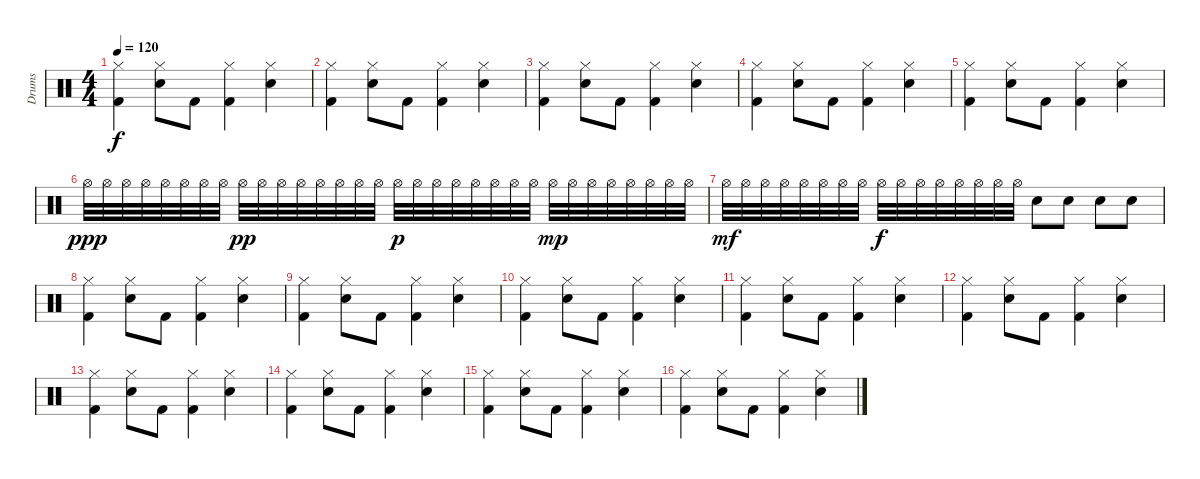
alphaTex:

\track ("Drums" "Drums") {instrument percussion}
\staff {score}
\articulation defaults
\ts (4 4)
\tempo 120
\clef neutral
\ks c
("Hi-Hat (closed)" "Kick (hit) 2").4{dy f} ("Electric Snare (hit)" "Hi-Hat (closed)").8 "Kick (hit) 2".8 ("Hi-Hat (closed)" "Kick (hit) 2").4 ("Electric Snare (hit)" "Hi-Hat (closed)").4 |
("Hi-Hat (closed)" "Kick (hit) 2").4 ("Electric Snare (hit)" "Hi-Hat (closed)").8 "Kick (hit) 2".8 ("Hi-Hat (closed)" "Kick (hit) 2").4 ("Electric Snare (hit)" "Hi-Hat (closed)").4 |
("Hi-Hat (closed)" "Kick (hit) 2").4 ("Electric Snare (hit)" "Hi-Hat (closed)").8 "Kick (hit) 2".8 ("Hi-Hat (closed)" "Kick (hit) 2").4 ("Electric Snare (hit)" "Hi-Hat (closed)").4 |
("Hi-Hat (closed)" "Kick (hit) 2").4 ("Electric Snare (hit)" "Hi-Hat (closed)").8 "Kick (hit) 2".8 ("Hi-Hat (closed)" "Kick (hit) 2").4 ("Electric Snare (hit)" "Hi-Hat (closed)").4 |
("Hi-Hat (closed)" "Kick (hit) 2").4 ("Electric Snare (hit)" "Hi-Hat (closed)").8 "Kick (hit) 2".8 ("Hi-Hat (closed)" "Kick (hit) 2").4 ("Electric Snare (hit)" "Hi-Hat (closed)").4 |
"Hi-Hat (open)".32{dy ppp} "Hi-Hat (open)".32 "Hi-Hat (open)".32 "Hi-Hat (open)".32 "Hi-Hat (open)".32 "Hi-Hat (open)".32 "Hi-Hat (open)".32 "Hi-Hat (open)".32 "Hi-Hat (open)".32{dy pp} "Hi-Hat (open)".32 "Hi-Hat (open)".32 "Hi-Hat (open)".32 "Hi-Hat (open)".32 "Hi-Hat (open)".32 "Hi-Hat (open)".32 "Hi-Hat (open)".32 "Hi-Hat (open)".32{dy p} "Hi-Hat (open)".32 "Hi-Hat (open)".32 "Hi-Hat (open)".32 "Hi-Hat (open)".32 "Hi-Hat (open)".32 "Hi-Hat (open)".32 "Hi-Hat (open)".32 "Hi-Hat (open)".32{dy mp} "Hi-Hat (open)".32 "Hi-Hat (open)".32 "Hi-Hat (open)".32 "Hi-Hat (open)".32 "Hi-Hat (open)".32 "Hi-Hat (open)".32 "Hi-Hat (open)".32 |
"Hi-Hat (open)".32{dy mf} "Hi-Hat (open)".32 "Hi-Hat (open)".32 "Hi-Hat (open)".32 "Hi-Hat (open)".32 "Hi-Hat (open)".32 "Hi-Hat (open)".32 "Hi-Hat (open)".32 "Hi-Hat (open)".32{dy f} "Hi-Hat (open)".32 "Hi-Hat (open)".32 "Hi-Hat (open)".32 "Hi-Hat (open)".32 "Hi-Hat (open)".32 "Hi-Hat (open)".32 "Hi-Hat (open)".32 "Electric Snare (hit)".8 "Electric Snare (hit)".8 "Electric Snare (hit)".8 "Electric Snare (hit)".8 |
("Hi-Hat (closed)" "Kick (hit) 2").4 ("Electric Snare (hit)" "Hi-Hat (closed)").8 "Kick (hit) 2".8 ("Hi-Hat (closed)" "Kick (hit) 2").4 ("Electric Snare (hit)" "Hi-Hat (closed)").4 |
("Hi-Hat (closed)" "Kick (hit) 2").4 ("Electric Snare (hit)" "Hi-Hat (closed)").8 "Kick (hit) 2".8 ("Hi-Hat (closed)" "Kick (hit) 2").4 ("Electric Snare (hit)" "Hi-Hat (closed)").4 |
("Hi-Hat (closed)" "Kick (hit) 2").4 ("Electric Snare (hit)" "Hi-Hat (closed)").8 "Kick (hit) 2".8 ("Hi-Hat (closed)" "Kick (hit) 2").4 ("Electric Snare (hit)" "Hi-Hat (closed)").4 |
("Hi-Hat (closed)" "Kick (hit) 2").4 ("Electric Snare (hit)" "Hi-Hat (closed)").8 "Kick (hit) 2".8 ("Hi-Hat (closed)" "Kick (hit) 2").4 ("Electric Snare (hit)" "Hi-Hat (closed)").4 |
("Hi-Hat (closed)" "Kick (hit) 2").4 ("Electric Snare (hit)" "Hi-Hat (closed)").8 "Kick (hit) 2".8 ("Hi-Hat (closed)" "Kick (hit) 2").4 ("Electric Snare (hit)" "Hi-Hat (closed)").4 |
("Hi-Hat (closed)" "Kick (hit) 2").4 ("Electric Snare (hit)" "Hi-Hat (closed)").8 "Kick (hit) 2".8 ("Hi-Hat (closed)" "Kick (hit) 2").4 ("Electric Snare (hit)" "Hi-Hat (closed)").4 |
("Hi-Hat (closed)" "Kick (hit) 2").4 ("Electric Snare (hit)" "Hi-Hat (closed)").8 "Kick (hit) 2".8 ("Hi-Hat (closed)" "Kick (hit) 2").4 ("Electric Snare (hit)" "Hi-Hat (closed)").4 |
("Hi-Hat (closed)" "Kick (hit) 2").4 ("Electric Snare (hit)" "Hi-Hat (closed)").8 "Kick (hit) 2".8 ("Hi-Hat (closed)" "Kick (hit) 2").4 ("Electric Snare (hit)" "Hi-Hat (closed)").4 |
("Hi-Hat (closed)" "Kick (hit) 2").4 ("Electric Snare (hit)" "Hi-Hat (closed)").8 "Kick (hit) 2".8 ("Hi-Hat (closed)" "Kick (hit) 2").4 ("Electric Snare (hit)" "Hi-Hat (closed)").4
